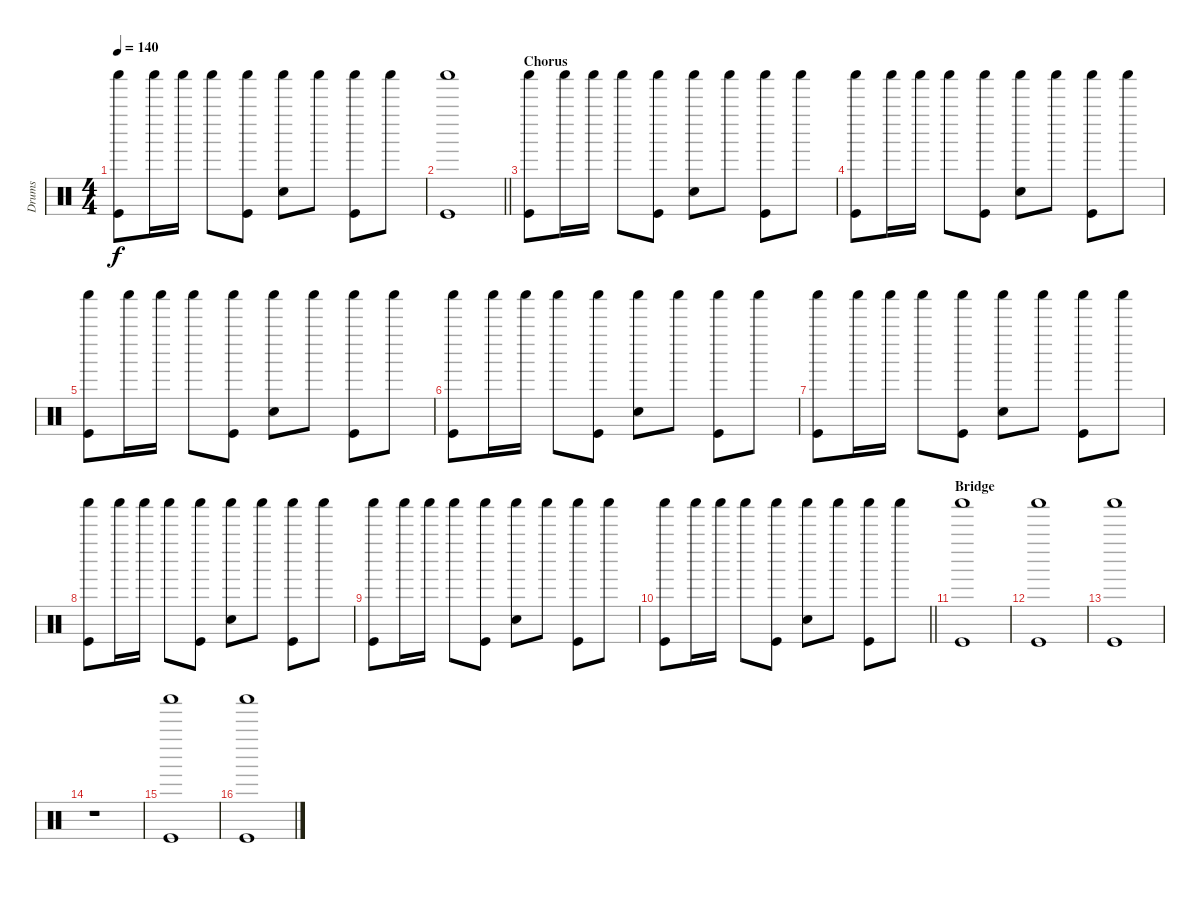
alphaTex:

\track ("Drums" "Drums") {instrument percussion}
\staff {score}
\articulation defaults
\ts (4 4)
\tempo 140
\clef neutral
\ks c
("Shaker (hit)" "Kick (hit)").8{dy f} "Shaker (hit)".16 "Shaker (hit)".16 "Shaker (hit)".8 ("Shaker (hit)" "Kick (hit)").8 ("Shaker (hit)" "Hand Clap (hit)").8 "Shaker (hit)".8 ("Shaker (hit)" "Kick (hit)").8 "Shaker (hit)".8 |
\barLineRight lightlight
("Shaker (hit)" "Kick (hit)").1 |
\section ("" "Chorus")
("Shaker (hit)" "Kick (hit)").8 "Shaker (hit)".16 "Shaker (hit)".16 "Shaker (hit)".8 ("Shaker (hit)" "Kick (hit)").8 ("Shaker (hit)" "Hand Clap (hit)").8 "Shaker (hit)".8 ("Shaker (hit)" "Kick (hit)").8 "Shaker (hit)".8 |
("Shaker (hit)" "Kick (hit)").8 "Shaker (hit)".16 "Shaker (hit)".16 "Shaker (hit)".8 ("Shaker (hit)" "Kick (hit)").8 ("Shaker (hit)" "Hand Clap (hit)").8 "Shaker (hit)".8 ("Shaker (hit)" "Kick (hit)").8 "Shaker (hit)".8 |
("Shaker (hit)" "Kick (hit)").8 "Shaker (hit)".16 "Shaker (hit)".16 "Shaker (hit)".8 ("Shaker (hit)" "Kick (hit)").8 ("Shaker (hit)" "Hand Clap (hit)").8 "Shaker (hit)".8 ("Shaker (hit)" "Kick (hit)").8 "Shaker (hit)".8 |
("Shaker (hit)" "Kick (hit)").8 "Shaker (hit)".16 "Shaker (hit)".16 "Shaker (hit)".8 ("Shaker (hit)" "Kick (hit)").8 ("Shaker (hit)" "Hand Clap (hit)").8 "Shaker (hit)".8 ("Shaker (hit)" "Kick (hit)").8 "Shaker (hit)".8 |
("Shaker (hit)" "Kick (hit)").8 "Shaker (hit)".16 "Shaker (hit)".16 "Shaker (hit)".8 ("Shaker (hit)" "Kick (hit)").8 ("Shaker (hit)" "Hand Clap (hit)").8 "Shaker (hit)".8 ("Shaker (hit)" "Kick (hit)").8 "Shaker (hit)".8 |
("Shaker (hit)" "Kick (hit)").8 "Shaker (hit)".16 "Shaker (hit)".16 "Shaker (hit)".8 ("Shaker (hit)" "Kick (hit)").8 ("Shaker (hit)" "Hand Clap (hit)").8 "Shaker (hit)".8 ("Shaker (hit)" "Kick (hit)").8 "Shaker (hit)".8 |
("Shaker (hit)" "Kick (hit)").8 "Shaker (hit)".16 "Shaker (hit)".16 "Shaker (hit)".8 ("Shaker (hit)" "Kick (hit)").8 ("Shaker (hit)" "Hand Clap (hit)").8 "Shaker (hit)".8 ("Shaker (hit)" "Kick (hit)").8 "Shaker (hit)".8 |
\barLineRight lightlight
("Shaker (hit)" "Kick (hit)").8 "Shaker (hit)".16 "Shaker (hit)".16 "Shaker (hit)".8 ("Shaker (hit)" "Kick (hit)").8 ("Shaker (hit)" "Hand Clap (hit)").8 "Shaker (hit)".8 ("Shaker (hit)" "Kick (hit)").8 "Shaker (hit)".8 |
\section ("" "Bridge")
("Shaker (hit)" "Kick (hit)").1 |
("Shaker (hit)" "Kick (hit)").1 |
("Shaker (hit)" "Kick (hit)").1 |
r.1 |
("Shaker (hit)" "Kick (hit)").1 |
("Shaker (hit)" "Kick (hit)").1
